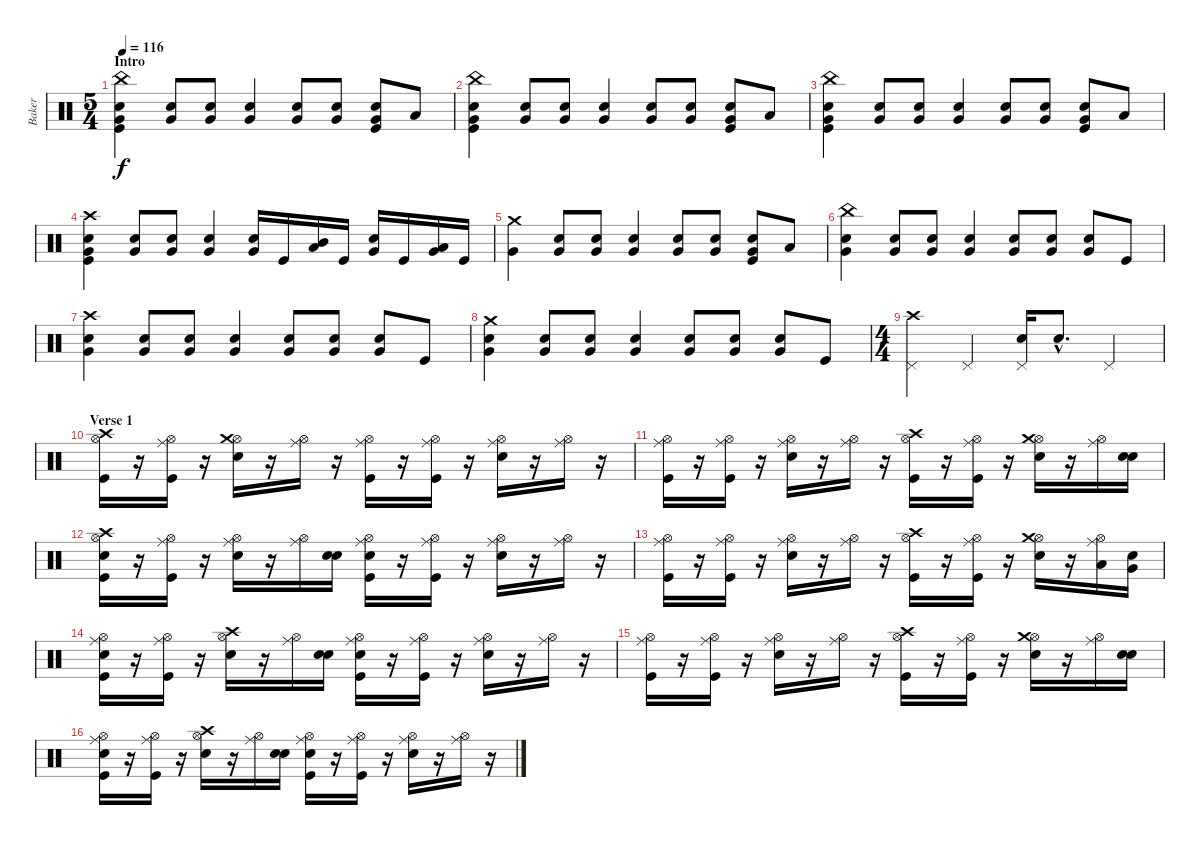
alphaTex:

\track ("Baker" "Baker") {instrument percussion}
\staff {score}
\articulation defaults
\ts (5 4)
\section ("" "Intro")
\tempo 116
\clef neutral
\ks c
("Kick (hit)" "Electric Snare (hit)" "Very Low Tom (hit)" "China (hit)").4{dy f} ("Electric Snare (hit)" "Very Low Tom (hit)").8 ("Electric Snare (hit)" "Very Low Tom (hit)").8 ("Electric Snare (hit)" "Very Low Tom (hit)").4 ("Electric Snare (hit)" "Very Low Tom (hit)").8 ("Electric Snare (hit)" "Very Low Tom (hit)").8 ("Kick (hit)" "Electric Snare (hit)" "Very Low Tom (hit)").8 "Low Floor Tom (hit)".8 |
("Kick (hit)" "Electric Snare (hit)" "Very Low Tom (hit)" "China (hit)").4 ("Electric Snare (hit)" "Very Low Tom (hit)").8 ("Electric Snare (hit)" "Very Low Tom (hit)").8 ("Electric Snare (hit)" "Very Low Tom (hit)").4 ("Electric Snare (hit)" "Very Low Tom (hit)").8 ("Electric Snare (hit)" "Very Low Tom (hit)").8 ("Kick (hit)" "Electric Snare (hit)" "Very Low Tom (hit)").8 "Low Floor Tom (hit)".8 |
("Kick (hit)" "Electric Snare (hit)" "Very Low Tom (hit)" "China (hit)").4 ("Electric Snare (hit)" "Very Low Tom (hit)").8 ("Electric Snare (hit)" "Very Low Tom (hit)").8 ("Electric Snare (hit)" "Very Low Tom (hit)").4 ("Electric Snare (hit)" "Very Low Tom (hit)").8 ("Electric Snare (hit)" "Very Low Tom (hit)").8 ("Kick (hit)" "Electric Snare (hit)" "Very Low Tom (hit)").8 "Low Floor Tom (hit)".8 |
("Kick (hit)" "Electric Snare (hit)" "Very Low Tom (hit)" "Crash high (hit)").4 ("Electric Snare (hit)" "Very Low Tom (hit)").8 ("Electric Snare (hit)" "Very Low Tom (hit)").8 ("Electric Snare (hit)" "Very Low Tom (hit)").4 ("Electric Snare (hit)" "Very Low Tom (hit)").16 "Kick (hit)".16 ("Low Tom (hit)" "Mid Tom (hit)").16 "Kick (hit)".16 ("Electric Snare (hit)" "Very Low Tom (hit)").16 "Kick (hit)".16 ("Low Floor Tom (hit)" "Very Low Tom (hit)").16 "Kick (hit)".16 |
("Very Low Tom (hit)" "Crash medium (hit)").4 ("Electric Snare (hit)" "Very Low Tom (hit)").8 ("Electric Snare (hit)" "Very Low Tom (hit)").8 ("Electric Snare (hit)" "Very Low Tom (hit)").4 ("Electric Snare (hit)" "Very Low Tom (hit)").8 ("Electric Snare (hit)" "Very Low Tom (hit)").8 ("Kick (hit)" "Electric Snare (hit)" "Very Low Tom (hit)").8 "Low Floor Tom (hit)".8 |
("Electric Snare (hit)" "Very Low Tom (hit)" "China (hit)").4 ("Electric Snare (hit)" "Very Low Tom (hit)").8 ("Electric Snare (hit)" "Very Low Tom (hit)").8 ("Electric Snare (hit)" "Very Low Tom (hit)").4 ("Electric Snare (hit)" "Very Low Tom (hit)").8 ("Electric Snare (hit)" "Very Low Tom (hit)").8 ("Electric Snare (hit)" "Very Low Tom (hit)").8 "Kick (hit)".8 |
("Electric Snare (hit)" "Very Low Tom (hit)" "Crash high (hit)").4 ("Electric Snare (hit)" "Very Low Tom (hit)").8 ("Electric Snare (hit)" "Very Low Tom (hit)").8 ("Electric Snare (hit)" "Very Low Tom (hit)").4 ("Electric Snare (hit)" "Very Low Tom (hit)").8 ("Electric Snare (hit)" "Very Low Tom (hit)").8 ("Electric Snare (hit)" "Very Low Tom (hit)").8 "Kick (hit)".8 |
("Electric Snare (hit)" "Very Low Tom (hit)" "Crash medium (hit)").4 ("Electric Snare (hit)" "Very Low Tom (hit)").8 ("Electric Snare (hit)" "Very Low Tom (hit)").8 ("Electric Snare (hit)" "Very Low Tom (hit)").4 ("Electric Snare (hit)" "Very Low Tom (hit)").8 ("Electric Snare (hit)" "Very Low Tom (hit)").8 ("Electric Snare (hit)" "Very Low Tom (hit)").8 "Kick (hit)".8 |
\ts (4 4)
("Pedal Hi-Hat (hit)" "Crash high (hit)").4 "Pedal Hi-Hat (hit)".4 ("Electric Snare (hit)" "Pedal Hi-Hat (hit)").16 "Electric Snare (hit)"{hac}.8{d} "Pedal Hi-Hat (hit)".4 |
\section ("" "Verse 1")
("Kick (hit)" "Hi-Hat (open)" "Crash high (hit)").16 r.16 ("Kick (hit)" "Hi-Hat (open)" "Ride (middle)").16 r.16 ("Electric Snare (hit)" "Hi-Hat (open)" "Crash medium (hit)").16 r.16 ("Hi-Hat (open)" "Ride (middle)").16 r.16 ("Kick (hit)" "Hi-Hat (open)" "Ride (middle)").16 r.16 ("Kick (hit)" "Hi-Hat (open)" "Ride (middle)").16 r.16 ("Electric Snare (hit)" "Hi-Hat (open)" "Ride (middle)").16 r.16 ("Hi-Hat (open)" "Ride (middle)").16 r.16 |
("Kick (hit)" "Hi-Hat (open)" "Ride (middle)").16 r.16 ("Kick (hit)" "Hi-Hat (open)" "Ride (middle)").16 r.16 ("Electric Snare (hit)" "Hi-Hat (open)" "Ride (middle)").16 r.16 ("Hi-Hat (open)" "Ride (middle)").16 r.16 ("Kick (hit)" "Hi-Hat (open)" "Crash high (hit)").16 r.16 ("Kick (hit)" "Hi-Hat (open)" "Ride (middle)").16 r.16 ("Electric Snare (hit)" "Hi-Hat (open)" "Crash medium (hit)").16 r.16 ("Hi-Hat (open)" "Ride (middle)").16 ("Snare (hit)" "Electric Snare (hit)").16 |
("Snare (hit)" "Kick (hit)" "Hi-Hat (open)" "Crash high (hit)").16 r.16 ("Kick (hit)" "Hi-Hat (open)" "Ride (middle)").16 r.16 ("Electric Snare (hit)" "Hi-Hat (open)" "Ride (middle)").16 r.16 ("Hi-Hat (open)" "Ride (middle)").16 ("Snare (hit)" "Electric Snare (hit)").16 ("Snare (hit)" "Kick (hit)" "Hi-Hat (open)" "Ride (middle)").16 r.16 ("Kick (hit)" "Hi-Hat (open)" "Ride (middle)").16 r.16 ("Electric Snare (hit)" "Hi-Hat (open)" "Ride (middle)").16 r.16 ("Hi-Hat (open)" "Ride (middle)").16 r.16 |
("Kick (hit)" "Hi-Hat (open)" "Ride (middle)").16 r.16 ("Kick (hit)" "Hi-Hat (open)" "Ride (middle)").16 r.16 ("Electric Snare (hit)" "Hi-Hat (open)" "Ride (middle)").16 r.16 ("Hi-Hat (open)" "Ride (middle)").16 r.16 ("Kick (hit)" "Hi-Hat (open)" "Crash high (hit)").16 r.16 ("Kick (hit)" "Hi-Hat (open)" "Ride (middle)").16 r.16 ("Electric Snare (hit)" "Hi-Hat (open)" "Crash medium (hit)").16 r.16 ("Low Tom (hit)" "Hi-Hat (open)" "Ride (middle)").16 ("Snare (hit)" "Very Low Tom (hit)").16 |
("Snare (hit)" "Kick (hit)" "Hi-Hat (open)" "Ride (middle)").16 r.16 ("Kick (hit)" "Hi-Hat (open)" "Ride (middle)").16 r.16 ("Electric Snare (hit)" "Hi-Hat (open)" "Crash high (hit)").16 r.16 ("Hi-Hat (open)" "Ride (middle)").16 ("Snare (hit)" "Electric Snare (hit)").16 ("Snare (hit)" "Kick (hit)" "Hi-Hat (open)" "Ride (middle)").16 r.16 ("Kick (hit)" "Hi-Hat (open)" "Ride (middle)").16 r.16 ("Electric Snare (hit)" "Hi-Hat (open)" "Ride (middle)").16 r.16 ("Hi-Hat (open)" "Ride (middle)").16 r.16 |
("Kick (hit)" "Hi-Hat (open)" "Ride (middle)").16 r.16 ("Kick (hit)" "Hi-Hat (open)" "Ride (middle)").16 r.16 ("Electric Snare (hit)" "Hi-Hat (open)" "Ride (middle)").16 r.16 ("Hi-Hat (open)" "Ride (middle)").16 r.16 ("Kick (hit)" "Hi-Hat (open)" "Crash high (hit)").16 r.16 ("Kick (hit)" "Hi-Hat (open)" "Ride (middle)").16 r.16 ("Electric Snare (hit)" "Hi-Hat (open)" "Crash medium (hit)").16 r.16 ("Hi-Hat (open)" "Ride (middle)").16 ("Snare (hit)" "Electric Snare (hit)").16 |
("Snare (hit)" "Kick (hit)" "Hi-Hat (open)" "Ride (middle)").16 r.16 ("Kick (hit)" "Hi-Hat (open)" "Ride (middle)").16 r.16 ("Electric Snare (hit)" "Hi-Hat (open)" "Crash high (hit)").16 r.16 ("Hi-Hat (open)" "Ride (middle)").16 ("Snare (hit)" "Electric Snare (hit)").16 ("Snare (hit)" "Kick (hit)" "Hi-Hat (open)" "Ride (middle)").16 r.16 ("Kick (hit)" "Hi-Hat (open)" "Ride (middle)").16 r.16 ("Electric Snare (hit)" "Hi-Hat (open)" "Ride (middle)").16 r.16 ("Hi-Hat (open)" "Ride (middle)").16 r.16
